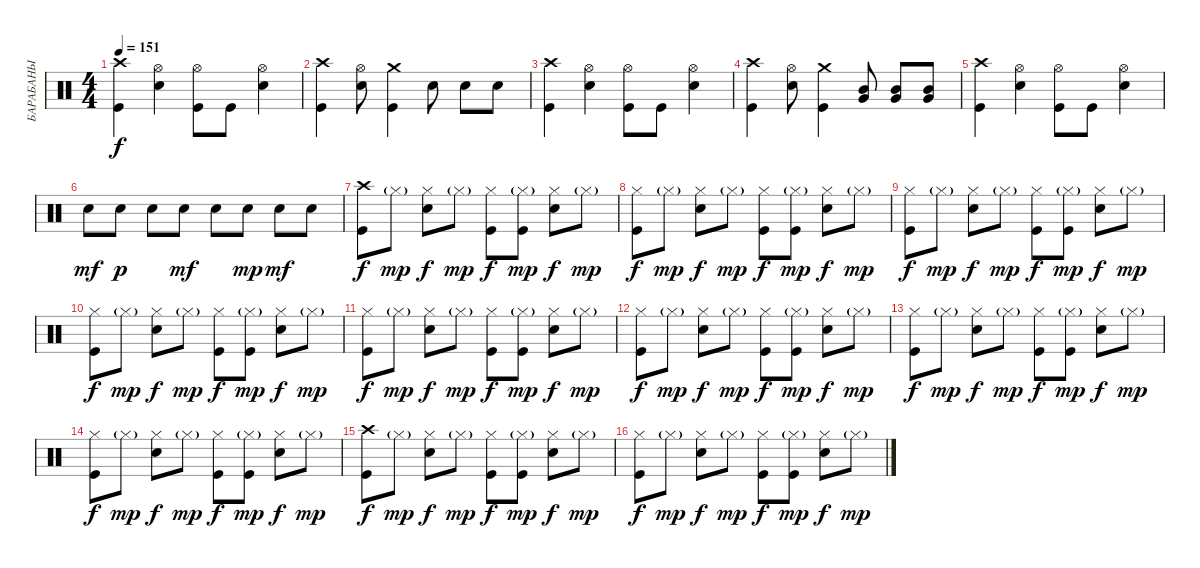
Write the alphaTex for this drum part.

\track ("БАРАБАНЫ" "БАРАБАНЫ") {instrument percussion}
\staff {score}
\articulation defaults
\ts (4 4)
\tempo 151
\clef neutral
\ks c
("Crash high (hit)" "Kick (hit)").4{dy f} ("Hi-Hat (open)" "Electric Snare (hit)").4 ("Hi-Hat (open)" "Kick (hit)").8 "Kick (hit)".8 ("Hi-Hat (open)" "Electric Snare (hit)").4 |
("Crash high (hit)" "Kick (hit)").4 ("Hi-Hat (open)" "Electric Snare (hit)").8 ("Crash medium (hit)" "Kick (hit)").4 "Electric Snare (hit)".8 "Electric Snare (hit)".8 "Electric Snare (hit)".8 |
("Crash high (hit)" "Kick (hit)").4 ("Hi-Hat (open)" "Electric Snare (hit)").4 ("Hi-Hat (open)" "Kick (hit)").8 "Kick (hit)".8 ("Hi-Hat (open)" "Electric Snare (hit)").4 |
("Crash high (hit)" "Kick (hit)").4 ("Hi-Hat (open)" "Electric Snare (hit)").8 ("Crash medium (hit)" "Kick (hit)").4 ("Very Low Tom (hit)" "Mid Tom (hit)").8 ("Very Low Tom (hit)" "Mid Tom (hit)").8 ("Very Low Tom (hit)" "Mid Tom (hit)").8 |
("Crash high (hit)" "Kick (hit)").4 ("Hi-Hat (open)" "Electric Snare (hit)").4 ("Hi-Hat (open)" "Kick (hit)").8 "Kick (hit)".8 ("Hi-Hat (open)" "Electric Snare (hit)").4 |
"Electric Snare (hit)".8{dy mf} "Electric Snare (hit)".8{dy p} "Electric Snare (hit)".8 "Electric Snare (hit)".8{dy mf} "Electric Snare (hit)".8 "Electric Snare (hit)".8{dy mp} "Electric Snare (hit)".8{dy mf} "Electric Snare (hit)".8 |
("Crash high (hit)" "Kick (hit)").8{dy f} "Hi-Hat (closed)"{g}.8{dy mp} ("Hi-Hat (closed)" "Electric Snare (hit)").8{dy f} "Hi-Hat (closed)"{g}.8{dy mp} ("Hi-Hat (closed)" "Kick (hit)").8{dy f} ("Hi-Hat (closed)"{g} "Kick (hit)").8{dy mp} ("Hi-Hat (closed)" "Electric Snare (hit)").8{dy f} "Hi-Hat (closed)"{g}.8{dy mp} |
("Hi-Hat (closed)" "Kick (hit)").8{dy f} "Hi-Hat (closed)"{g}.8{dy mp} ("Hi-Hat (closed)" "Electric Snare (hit)").8{dy f} "Hi-Hat (closed)"{g}.8{dy mp} ("Hi-Hat (closed)" "Kick (hit)").8{dy f} ("Hi-Hat (closed)"{g} "Kick (hit)").8{dy mp} ("Hi-Hat (closed)" "Electric Snare (hit)").8{dy f} "Hi-Hat (closed)"{g}.8{dy mp} |
("Hi-Hat (closed)" "Kick (hit)").8{dy f} "Hi-Hat (closed)"{g}.8{dy mp} ("Hi-Hat (closed)" "Electric Snare (hit)").8{dy f} "Hi-Hat (closed)"{g}.8{dy mp} ("Hi-Hat (closed)" "Kick (hit)").8{dy f} ("Hi-Hat (closed)"{g} "Kick (hit)").8{dy mp} ("Hi-Hat (closed)" "Electric Snare (hit)").8{dy f} "Hi-Hat (closed)"{g}.8{dy mp} |
("Hi-Hat (closed)" "Kick (hit)").8{dy f} "Hi-Hat (closed)"{g}.8{dy mp} ("Hi-Hat (closed)" "Electric Snare (hit)").8{dy f} "Hi-Hat (closed)"{g}.8{dy mp} ("Hi-Hat (closed)" "Kick (hit)").8{dy f} ("Hi-Hat (closed)"{g} "Kick (hit)").8{dy mp} ("Hi-Hat (closed)" "Electric Snare (hit)").8{dy f} "Hi-Hat (closed)"{g}.8{dy mp} |
("Hi-Hat (closed)" "Kick (hit)").8{dy f} "Hi-Hat (closed)"{g}.8{dy mp} ("Hi-Hat (closed)" "Electric Snare (hit)").8{dy f} "Hi-Hat (closed)"{g}.8{dy mp} ("Hi-Hat (closed)" "Kick (hit)").8{dy f} ("Hi-Hat (closed)"{g} "Kick (hit)").8{dy mp} ("Hi-Hat (closed)" "Electric Snare (hit)").8{dy f} "Hi-Hat (closed)"{g}.8{dy mp} |
("Hi-Hat (closed)" "Kick (hit)").8{dy f} "Hi-Hat (closed)"{g}.8{dy mp} ("Hi-Hat (closed)" "Electric Snare (hit)").8{dy f} "Hi-Hat (closed)"{g}.8{dy mp} ("Hi-Hat (closed)" "Kick (hit)").8{dy f} ("Hi-Hat (closed)"{g} "Kick (hit)").8{dy mp} ("Hi-Hat (closed)" "Electric Snare (hit)").8{dy f} "Hi-Hat (closed)"{g}.8{dy mp} |
("Hi-Hat (closed)" "Kick (hit)").8{dy f} "Hi-Hat (closed)"{g}.8{dy mp} ("Hi-Hat (closed)" "Electric Snare (hit)").8{dy f} "Hi-Hat (closed)"{g}.8{dy mp} ("Hi-Hat (closed)" "Kick (hit)").8{dy f} ("Hi-Hat (closed)"{g} "Kick (hit)").8{dy mp} ("Hi-Hat (closed)" "Electric Snare (hit)").8{dy f} "Hi-Hat (closed)"{g}.8{dy mp} |
("Hi-Hat (closed)" "Kick (hit)").8{dy f} "Hi-Hat (closed)"{g}.8{dy mp} ("Hi-Hat (closed)" "Electric Snare (hit)").8{dy f} "Hi-Hat (closed)"{g}.8{dy mp} ("Hi-Hat (closed)" "Kick (hit)").8{dy f} ("Hi-Hat (closed)"{g} "Kick (hit)").8{dy mp} ("Hi-Hat (closed)" "Electric Snare (hit)").8{dy f} "Hi-Hat (closed)"{g}.8{dy mp} |
("Crash high (hit)" "Kick (hit)").8{dy f} "Hi-Hat (closed)"{g}.8{dy mp} ("Hi-Hat (closed)" "Electric Snare (hit)").8{dy f} "Hi-Hat (closed)"{g}.8{dy mp} ("Hi-Hat (closed)" "Kick (hit)").8{dy f} ("Hi-Hat (closed)"{g} "Kick (hit)").8{dy mp} ("Hi-Hat (closed)" "Electric Snare (hit)").8{dy f} "Hi-Hat (closed)"{g}.8{dy mp} |
("Hi-Hat (closed)" "Kick (hit)").8{dy f} "Hi-Hat (closed)"{g}.8{dy mp} ("Hi-Hat (closed)" "Electric Snare (hit)").8{dy f} "Hi-Hat (closed)"{g}.8{dy mp} ("Hi-Hat (closed)" "Kick (hit)").8{dy f} ("Hi-Hat (closed)"{g} "Kick (hit)").8{dy mp} ("Hi-Hat (closed)" "Electric Snare (hit)").8{dy f} "Hi-Hat (closed)"{g}.8{dy mp}
